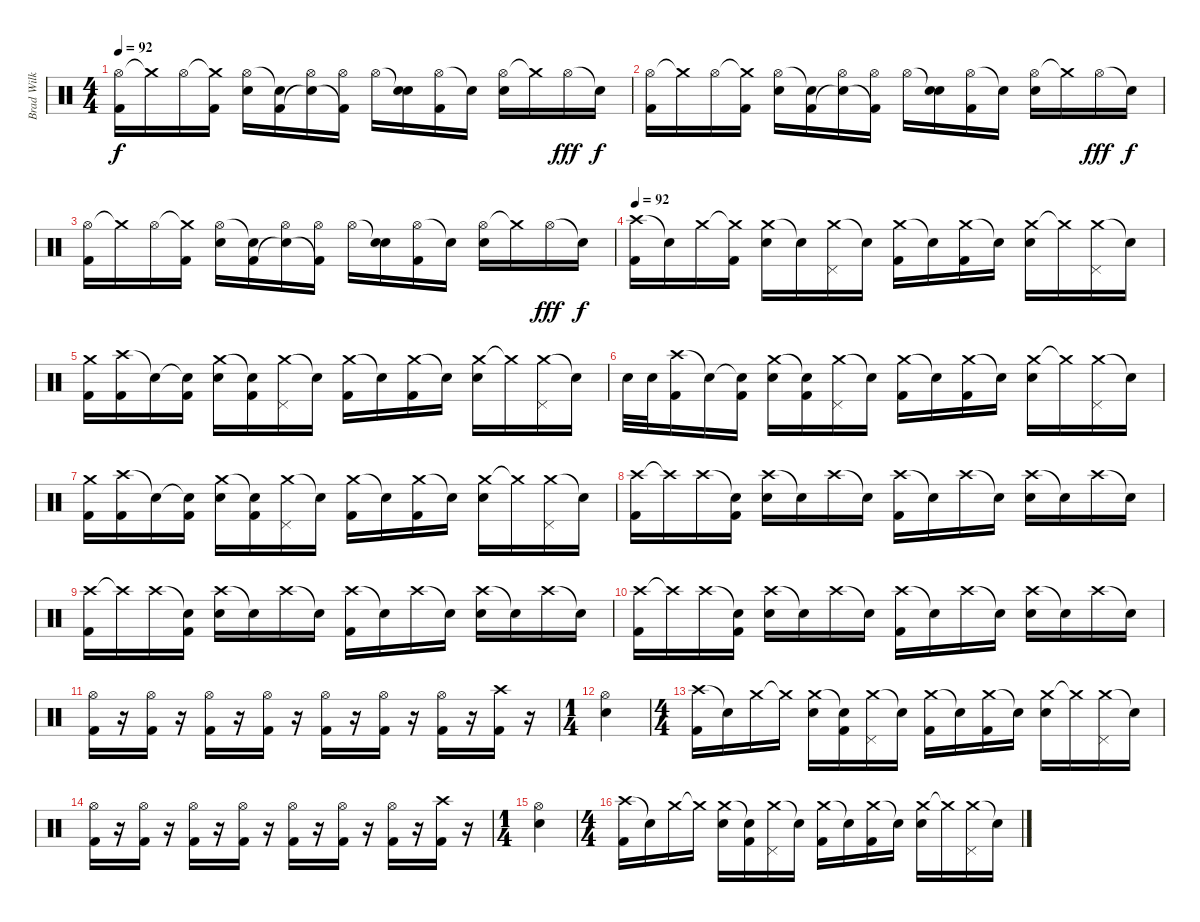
\track ("Brad Wilk (Drums)" "Brad Wilk ") {instrument percussion}
\staff {score}
\articulation defaults
\ts (4 4)
\tempo 92
\clef neutral
\ks c
("Hi-Hat (open)" "Kick (hit) 2").16{dy f} "Crash medium (hit)"{t}.16 "Hi-Hat (open)".16 ("Crash medium (hit)"{t} "Kick (hit) 2").16 ("Hi-Hat (open)" "Snare (hit) 2").16 ("Snare (hit)"{t} "Kick (hit) 2").16 ("Hi-Hat (open)" "Snare (hit)"{t}).16 ("Hi-Hat (open)" "Kick (hit) 2"{t}).16 "Hi-Hat (open)".16 ("Snare (hit)"{t} "Snare (hit) 2").16 ("Hi-Hat (open)" "Kick (hit) 2").16 "Snare (hit)"{t}.16 ("Hi-Hat (open)" "Snare (hit) 2").16 "Crash medium (hit)"{t}.16 "Hi-Hat (open)".16{dy fff} "Snare (hit)"{t}.16{dy f} |
("Hi-Hat (open)" "Kick (hit) 2").16 "Crash medium (hit)"{t}.16 "Hi-Hat (open)".16 ("Crash medium (hit)"{t} "Kick (hit) 2").16 ("Hi-Hat (open)" "Snare (hit) 2").16 ("Snare (hit)"{t} "Kick (hit) 2").16 ("Hi-Hat (open)" "Snare (hit)"{t}).16 ("Hi-Hat (open)" "Kick (hit) 2"{t}).16 "Hi-Hat (open)".16 ("Snare (hit)"{t} "Snare (hit) 2").16 ("Hi-Hat (open)" "Kick (hit) 2").16 "Snare (hit)"{t}.16 ("Hi-Hat (open)" "Snare (hit) 2").16 "Crash medium (hit)"{t}.16 "Hi-Hat (open)".16{dy fff} "Snare (hit)"{t}.16{dy f} |
("Hi-Hat (open)" "Kick (hit) 2").16 "Crash medium (hit)"{t}.16 "Hi-Hat (open)".16 ("Crash medium (hit)"{t} "Kick (hit) 2").16 ("Hi-Hat (open)" "Snare (hit) 2").16 ("Snare (hit)"{t} "Kick (hit) 2").16 ("Hi-Hat (open)" "Snare (hit)"{t}).16 ("Hi-Hat (open)" "Kick (hit) 2"{t}).16 "Hi-Hat (open)".16 ("Snare (hit)"{t} "Snare (hit) 2").16 ("Hi-Hat (open)" "Kick (hit) 2").16 "Snare (hit)"{t}.16 ("Hi-Hat (open)" "Snare (hit) 2").16 "Crash medium (hit)"{t}.16 "Hi-Hat (open)".16{dy fff} "Snare (hit)"{t}.16{dy f} |
\tempo 92
("Crash high (hit)" "Kick (hit) 2").16 "Snare (hit)"{t}.16 "Crash medium (hit)".16 ("Crash medium (hit)"{t} "Kick (hit) 2").16 ("Crash medium (hit)" "Snare (hit) 2").16 "Snare (hit)"{t}.16 ("Crash medium (hit)" "Pedal Hi-Hat (hit)").16 "Snare (hit)"{t}.16 ("Crash medium (hit)" "Kick (hit) 2").16 "Snare (hit)"{t}.16 ("Crash medium (hit)" "Kick (hit) 2").16 "Snare (hit)"{t}.16 ("Crash medium (hit)" "Snare (hit) 2").16 "Crash medium (hit)"{t}.16 ("Crash medium (hit)" "Pedal Hi-Hat (hit)").16 "Snare (hit)"{t}.16 |
("Crash medium (hit)" "Kick (hit) 2").16 ("Crash high (hit)" "Kick (hit) 2").16 "Snare (hit)"{t}.16 ("Snare (hit)"{t} "Kick (hit) 2").16 ("Crash medium (hit)" "Snare (hit) 2").16 ("Snare (hit)"{t} "Kick (hit) 2").16 ("Crash medium (hit)" "Pedal Hi-Hat (hit)").16 "Snare (hit)"{t}.16 ("Crash medium (hit)" "Kick (hit) 2").16 "Snare (hit)"{t}.16 ("Crash medium (hit)" "Kick (hit) 2").16 "Snare (hit)"{t}.16 ("Crash medium (hit)" "Snare (hit) 2").16 "Crash medium (hit)"{t}.16 ("Crash medium (hit)" "Pedal Hi-Hat (hit)").16 "Snare (hit)"{t}.16 |
"Snare (hit) 2".32 "Snare (hit) 2".32 ("Crash high (hit)" "Kick (hit) 2").16 "Snare (hit)"{t}.16 ("Snare (hit)"{t} "Kick (hit) 2").16 ("Crash medium (hit)" "Snare (hit) 2").16 ("Snare (hit)"{t} "Kick (hit) 2").16 ("Crash medium (hit)" "Pedal Hi-Hat (hit)").16 "Snare (hit)"{t}.16 ("Crash medium (hit)" "Kick (hit) 2").16 "Snare (hit)"{t}.16 ("Crash medium (hit)" "Kick (hit) 2").16 "Snare (hit)"{t}.16 ("Crash medium (hit)" "Snare (hit) 2").16 "Crash medium (hit)"{t}.16 ("Crash medium (hit)" "Pedal Hi-Hat (hit)").16 "Snare (hit)"{t}.16 |
("Crash medium (hit)" "Kick (hit) 2").16 ("Crash high (hit)" "Kick (hit) 2").16 "Snare (hit)"{t}.16 ("Snare (hit)"{t} "Kick (hit) 2").16 ("Crash medium (hit)" "Snare (hit) 2").16 ("Snare (hit)"{t} "Kick (hit) 2").16 ("Crash medium (hit)" "Pedal Hi-Hat (hit)").16 "Snare (hit)"{t}.16 ("Crash medium (hit)" "Kick (hit) 2").16 "Snare (hit)"{t}.16 ("Crash medium (hit)" "Kick (hit) 2").16 "Snare (hit)"{t}.16 ("Crash medium (hit)" "Snare (hit) 2").16 "Crash medium (hit)"{t}.16 ("Crash medium (hit)" "Pedal Hi-Hat (hit)").16 "Snare (hit)"{t}.16 |
("Crash high (hit)" "Kick (hit) 2").16 "Crash high (hit)"{t}.16 "Crash high (hit)".16 ("Snare (hit)"{t} "Kick (hit) 2").16 ("Crash high (hit)" "Snare (hit) 2").16 "Snare (hit)"{t}.16 "Crash high (hit)".16 "Snare (hit)"{t}.16 ("Crash high (hit)" "Kick (hit) 2").16 "Snare (hit)"{t}.16 "Crash high (hit)".16 "Snare (hit)"{t}.16 ("Crash high (hit)" "Snare (hit) 2").16 "Snare (hit)"{t}.16 "Crash high (hit)".16 "Snare (hit)"{t}.16 |
("Crash high (hit)" "Kick (hit) 2").16 "Crash high (hit)"{t}.16 "Crash high (hit)".16 ("Snare (hit)"{t} "Kick (hit) 2").16 ("Crash high (hit)" "Snare (hit) 2").16 "Snare (hit)"{t}.16 "Crash high (hit)".16 "Snare (hit)"{t}.16 ("Crash high (hit)" "Kick (hit) 2").16 "Snare (hit)"{t}.16 "Crash high (hit)".16 "Snare (hit)"{t}.16 ("Crash high (hit)" "Snare (hit) 2").16 "Snare (hit)"{t}.16 "Crash high (hit)".16 "Snare (hit)"{t}.16 |
("Crash high (hit)" "Kick (hit) 2").16 "Crash high (hit)"{t}.16 "Crash high (hit)".16 ("Snare (hit)"{t} "Kick (hit) 2").16 ("Crash high (hit)" "Snare (hit) 2").16 "Snare (hit)"{t}.16 "Crash high (hit)".16 "Snare (hit)"{t}.16 ("Crash high (hit)" "Kick (hit) 2").16 "Snare (hit)"{t}.16 "Crash high (hit)".16 "Snare (hit)"{t}.16 ("Crash high (hit)" "Snare (hit) 2").16 "Snare (hit)"{t}.16 "Crash high (hit)".16 "Snare (hit)"{t}.16 |
("Hi-Hat (open)" "Kick (hit) 2").16 r.16 ("Hi-Hat (open)" "Kick (hit) 2").16 r.16 ("Hi-Hat (open)" "Kick (hit) 2").16 r.16 ("Hi-Hat (open)" "Kick (hit) 2").16 r.16 ("Hi-Hat (open)" "Kick (hit) 2").16 r.16 ("Hi-Hat (open)" "Kick (hit) 2").16 r.16 ("Hi-Hat (open)" "Kick (hit) 2").16 r.16 ("Crash high (hit)" "Kick (hit) 2").16 r.16 |
\ts (1 4)
("Hi-Hat (open)" "Snare (hit) 2").4 |
\ts (4 4)
("Crash high (hit)" "Kick (hit) 2").16 "Snare (hit)"{t}.16 "Crash medium (hit)".16 "Crash medium (hit)"{t}.16 ("Crash medium (hit)" "Snare (hit) 2").16 ("Snare (hit)"{t} "Kick (hit) 2").16 ("Crash medium (hit)" "Pedal Hi-Hat (hit)").16 "Snare (hit)"{t}.16 ("Crash medium (hit)" "Kick (hit) 2").16 "Snare (hit)"{t}.16 ("Crash medium (hit)" "Kick (hit) 2").16 "Snare (hit)"{t}.16 ("Crash medium (hit)" "Snare (hit) 2").16 "Crash medium (hit)"{t}.16 ("Crash medium (hit)" "Pedal Hi-Hat (hit)").16 "Snare (hit)"{t}.16 |
("Hi-Hat (open)" "Kick (hit) 2").16 r.16 ("Hi-Hat (open)" "Kick (hit) 2").16 r.16 ("Hi-Hat (open)" "Kick (hit) 2").16 r.16 ("Hi-Hat (open)" "Kick (hit) 2").16 r.16 ("Hi-Hat (open)" "Kick (hit) 2").16 r.16 ("Hi-Hat (open)" "Kick (hit) 2").16 r.16 ("Hi-Hat (open)" "Kick (hit) 2").16 r.16 ("Crash high (hit)" "Kick (hit) 2").16 r.16 |
\ts (1 4)
("Hi-Hat (open)" "Snare (hit) 2").4 |
\ts (4 4)
("Crash high (hit)" "Kick (hit) 2").16 "Snare (hit)"{t}.16 "Crash medium (hit)".16 "Crash medium (hit)"{t}.16 ("Crash medium (hit)" "Snare (hit) 2").16 ("Snare (hit)"{t} "Kick (hit) 2").16 ("Crash medium (hit)" "Pedal Hi-Hat (hit)").16 "Snare (hit)"{t}.16 ("Crash medium (hit)" "Kick (hit) 2").16 "Snare (hit)"{t}.16 ("Crash medium (hit)" "Kick (hit) 2").16 "Snare (hit)"{t}.16 ("Crash medium (hit)" "Snare (hit) 2").16 "Crash medium (hit)"{t}.16 ("Crash medium (hit)" "Pedal Hi-Hat (hit)").16 "Snare (hit)"{t}.16
